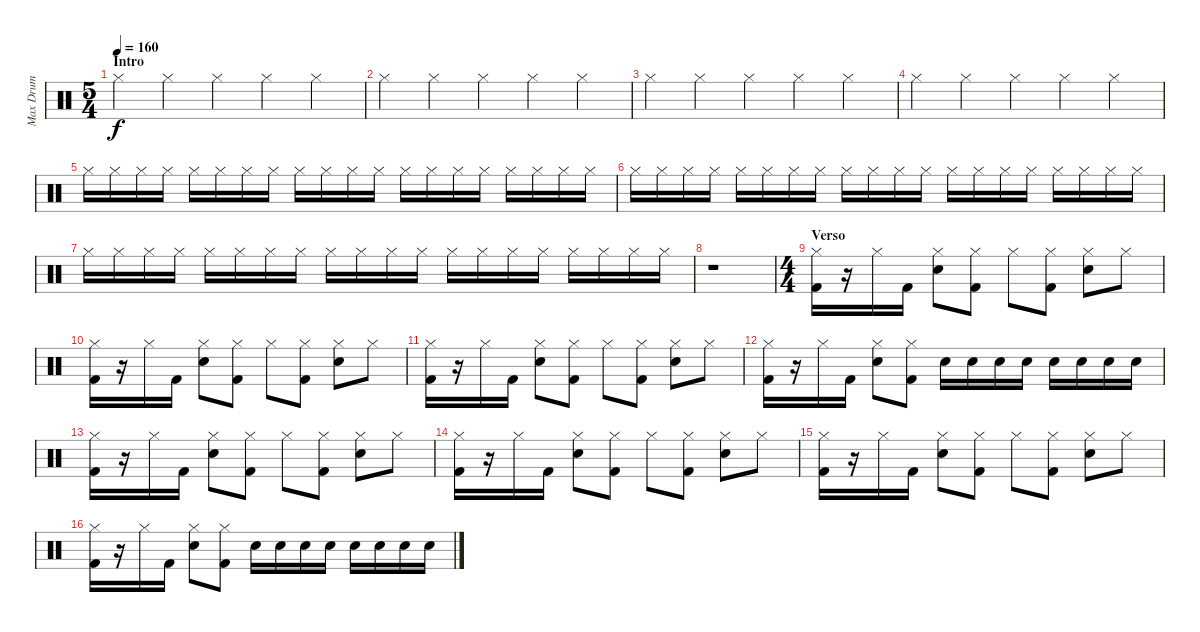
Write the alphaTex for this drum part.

\track ("Max Drum" "Max Drum") {instrument percussion}
\staff {score}
\articulation defaults
\ts (5 4)
\section ("" "Intro")
\tempo 160
\clef neutral
\ks c "Hi-Hat (closed)".4{dy f} "Hi-Hat (closed)".4 "Hi-Hat (closed)".4 "Hi-Hat (closed)".4 "Hi-Hat (closed)".4
|
"Hi-Hat (closed)".4 "Hi-Hat (closed)".4 "Hi-Hat (closed)".4 "Hi-Hat (closed)".4 "Hi-Hat (closed)".4 |
"Hi-Hat (closed)".4 "Hi-Hat (closed)".4 "Hi-Hat (closed)".4 "Hi-Hat (closed)".4 "Hi-Hat (closed)".4 |
"Hi-Hat (closed)".4 "Hi-Hat (closed)".4 "Hi-Hat (closed)".4 "Hi-Hat (closed)".4 "Hi-Hat (closed)".4 |
"Hi-Hat (closed)".16 "Hi-Hat (closed)".16 "Hi-Hat (closed)".16 "Hi-Hat (closed)".16 "Hi-Hat (closed)".16 "Hi-Hat (closed)".16 "Hi-Hat (closed)".16 "Hi-Hat (closed)".16 "Hi-Hat (closed)".16 "Hi-Hat (closed)".16 "Hi-Hat (closed)".16 "Hi-Hat (closed)".16 "Hi-Hat (closed)".16 "Hi-Hat (closed)".16 "Hi-Hat (closed)".16 "Hi-Hat (closed)".16 "Hi-Hat (closed)".16 "Hi-Hat (closed)".16 "Hi-Hat (closed)".16 "Hi-Hat (closed)".16 |
"Hi-Hat (closed)".16 "Hi-Hat (closed)".16 "Hi-Hat (closed)".16 "Hi-Hat (closed)".16 "Hi-Hat (closed)".16 "Hi-Hat (closed)".16 "Hi-Hat (closed)".16 "Hi-Hat (closed)".16 "Hi-Hat (closed)".16 "Hi-Hat (closed)".16 "Hi-Hat (closed)".16 "Hi-Hat (closed)".16 "Hi-Hat (closed)".16 "Hi-Hat (closed)".16 "Hi-Hat (closed)".16 "Hi-Hat (closed)".16 "Hi-Hat (closed)".16 "Hi-Hat (closed)".16 "Hi-Hat (closed)".16 "Hi-Hat (closed)".16 |
"Hi-Hat (closed)".16 "Hi-Hat (closed)".16 "Hi-Hat (closed)".16 "Hi-Hat (closed)".16 "Hi-Hat (closed)".16 "Hi-Hat (closed)".16 "Hi-Hat (closed)".16 "Hi-Hat (closed)".16 "Hi-Hat (closed)".16 "Hi-Hat (closed)".16 "Hi-Hat (closed)".16 "Hi-Hat (closed)".16 "Hi-Hat (closed)".16 "Hi-Hat (closed)".16 "Hi-Hat (closed)".16 "Hi-Hat (closed)".16 "Hi-Hat (closed)".16 "Hi-Hat (closed)".16 "Hi-Hat (closed)".16 "Hi-Hat (closed)".16 |
r.1 |
\ts (4 4)
\section ("" "Verso")
("Hi-Hat (closed)" "Kick (hit) 2").16 r.16 "Hi-Hat (closed)".16 "Kick (hit) 2".16 ("Hi-Hat (closed)" "Snare (hit) 2").8 ("Hi-Hat (closed)" "Kick (hit) 2").8 "Hi-Hat (closed)".8 ("Hi-Hat (closed)" "Kick (hit) 2").8 ("Hi-Hat (closed)" "Snare (hit) 2").8 "Hi-Hat (closed)".8 |
("Hi-Hat (closed)" "Kick (hit) 2").16 r.16 "Hi-Hat (closed)".16 "Kick (hit) 2".16 ("Hi-Hat (closed)" "Snare (hit) 2").8 ("Hi-Hat (closed)" "Kick (hit) 2").8 "Hi-Hat (closed)".8 ("Hi-Hat (closed)" "Kick (hit) 2").8 ("Hi-Hat (closed)" "Snare (hit) 2").8 "Hi-Hat (closed)".8 |
("Hi-Hat (closed)" "Kick (hit) 2").16 r.16 "Hi-Hat (closed)".16 "Kick (hit) 2".16 ("Hi-Hat (closed)" "Snare (hit) 2").8 ("Hi-Hat (closed)" "Kick (hit) 2").8 "Hi-Hat (closed)".8 ("Hi-Hat (closed)" "Kick (hit) 2").8 ("Hi-Hat (closed)" "Snare (hit) 2").8 "Hi-Hat (closed)".8 |
("Hi-Hat (closed)" "Kick (hit) 2").16 r.16 "Hi-Hat (closed)".16 "Kick (hit) 2".16 ("Hi-Hat (closed)" "Snare (hit) 2").8 ("Hi-Hat (closed)" "Kick (hit) 2").8 "Snare (hit) 2".16 "Snare (hit) 2".16 "Snare (hit) 2".16 "Snare (hit) 2".16 "Snare (hit) 2".16 "Snare (hit) 2".16 "Snare (hit) 2".16 "Snare (hit) 2".16 |
("Hi-Hat (closed)" "Kick (hit) 2").16 r.16 "Hi-Hat (closed)".16 "Kick (hit) 2".16 ("Hi-Hat (closed)" "Snare (hit) 2").8 ("Hi-Hat (closed)" "Kick (hit) 2").8 "Hi-Hat (closed)".8 ("Hi-Hat (closed)" "Kick (hit) 2").8 ("Hi-Hat (closed)" "Snare (hit) 2").8 "Hi-Hat (closed)".8 |
("Hi-Hat (closed)" "Kick (hit) 2").16 r.16 "Hi-Hat (closed)".16 "Kick (hit) 2".16 ("Hi-Hat (closed)" "Snare (hit) 2").8 ("Hi-Hat (closed)" "Kick (hit) 2").8 "Hi-Hat (closed)".8 ("Hi-Hat (closed)" "Kick (hit) 2").8 ("Hi-Hat (closed)" "Snare (hit) 2").8 "Hi-Hat (closed)".8 |
("Hi-Hat (closed)" "Kick (hit) 2").16 r.16 "Hi-Hat (closed)".16 "Kick (hit) 2".16 ("Hi-Hat (closed)" "Snare (hit) 2").8 ("Hi-Hat (closed)" "Kick (hit) 2").8 "Hi-Hat (closed)".8 ("Hi-Hat (closed)" "Kick (hit) 2").8 ("Hi-Hat (closed)" "Snare (hit) 2").8 "Hi-Hat (closed)".8 |
("Hi-Hat (closed)" "Kick (hit) 2").16 r.16 "Hi-Hat (closed)".16 "Kick (hit) 2".16 ("Hi-Hat (closed)" "Snare (hit) 2").8 ("Hi-Hat (closed)" "Kick (hit) 2").8 "Snare (hit) 2".16 "Snare (hit) 2".16 "Snare (hit) 2".16 "Snare (hit) 2".16 "Snare (hit) 2".16 "Snare (hit) 2".16 "Snare (hit) 2".16 "Snare (hit) 2".16
